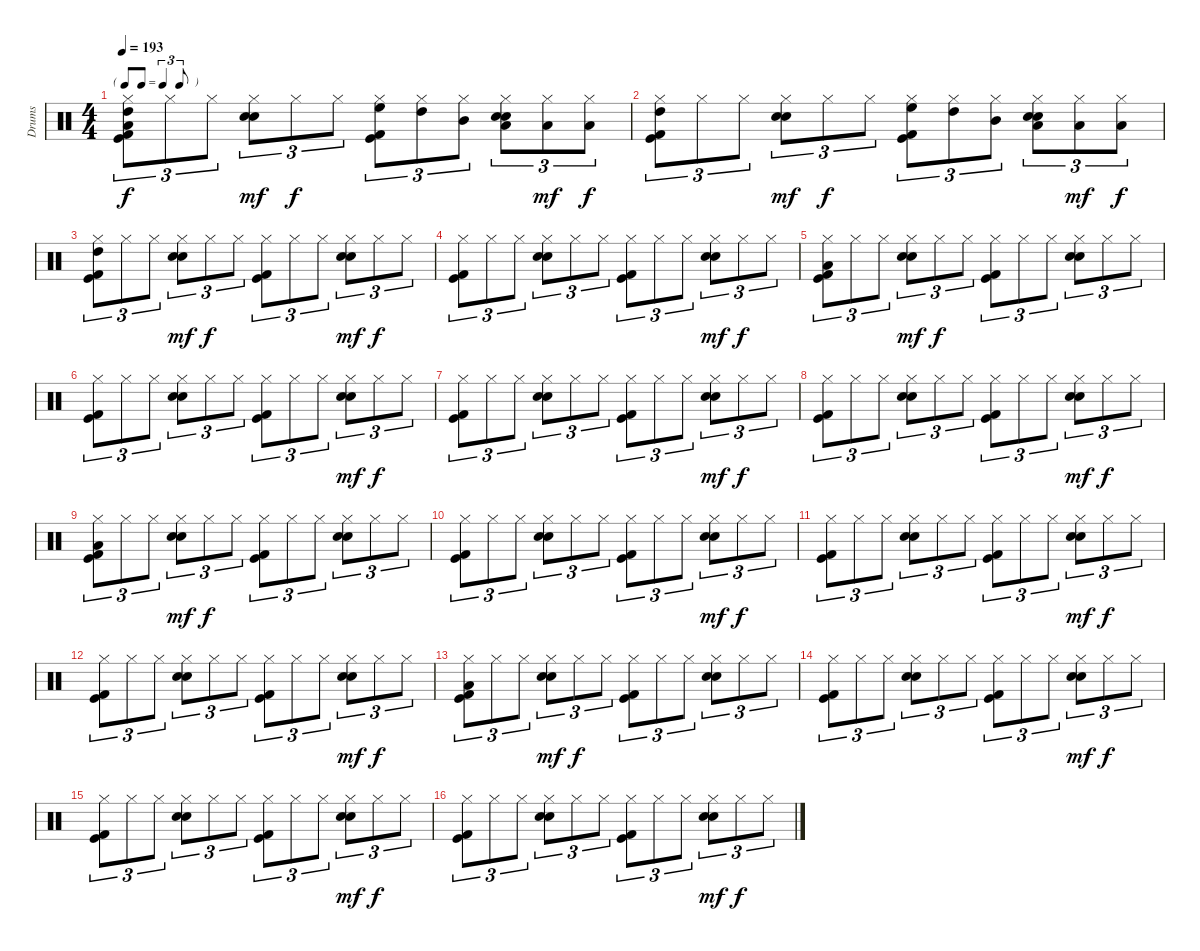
\track ("Drums" "Drums") {instrument percussion}
\staff {score}
\articulation defaults
\ts (4 4)
\tf triplet8th
\tempo 193
\clef neutral
\ks c
("High Tom (hit)" "Hi-Hat (closed)" "Low Floor Tom (hit)" "Kick (hit) 2" "Kick (hit)").8{tu (3 2) dy f} "Hi-Hat (closed)".8{tu (3 2)} "Hi-Hat (closed)".8{tu (3 2)} ("Hi-Hat (closed)" "Electric Snare (hit)" "Snare (hit) 2").8{tu (3 2) dy mf} "Hi-Hat (closed)".8{tu (3 2) dy f} "Hi-Hat (closed)".8{tu (3 2)} ("High Floor Tom (hit)" "Hi-Hat (closed)" "Kick (hit) 2" "Kick (hit)").8{tu (3 2)} ("High Tom (hit)" "Hi-Hat (closed)").8{tu (3 2)} ("Mid Tom (hit)" "Hi-Hat (closed)").8{tu (3 2)} ("Low Tom (hit)" "Hi-Hat (closed)" "Snare (hit) 2" "Electric Snare (hit)").8{tu (3 2)} ("Low Tom (hit)" "Hi-Hat (closed)").8{tu (3 2) dy mf} ("Low Tom (hit)" "Hi-Hat (closed)").8{tu (3 2) dy f} |
("High Tom (hit)" "Hi-Hat (closed)" "Kick (hit)" "Kick (hit) 2").8{tu (3 2)} "Hi-Hat (closed)".8{tu (3 2)} "Hi-Hat (closed)".8{tu (3 2)} ("Snare (hit) 2" "Electric Snare (hit)" "Hi-Hat (closed)").8{tu (3 2) dy mf} "Hi-Hat (closed)".8{tu (3 2) dy f} "Hi-Hat (closed)".8{tu (3 2)} ("High Floor Tom (hit)" "Hi-Hat (closed)" "Kick (hit)" "Kick (hit) 2").8{tu (3 2)} ("High Tom (hit)" "Hi-Hat (closed)").8{tu (3 2)} ("Mid Tom (hit)" "Hi-Hat (closed)").8{tu (3 2)} ("Low Tom (hit)" "Snare (hit) 2" "Electric Snare (hit)" "Hi-Hat (closed)").8{tu (3 2)} ("Low Tom (hit)" "Hi-Hat (closed)").8{tu (3 2) dy mf} ("Low Tom (hit)" "Hi-Hat (closed)").8{tu (3 2) dy f} |
("High Tom (hit)" "Hi-Hat (closed)" "Kick (hit) 2" "Kick (hit)").8{tu (3 2)} "Hi-Hat (closed)".8{tu (3 2)} "Hi-Hat (closed)".8{tu (3 2)} ("Snare (hit) 2" "Electric Snare (hit)" "Hi-Hat (closed)").8{tu (3 2) dy mf} "Hi-Hat (closed)".8{tu (3 2) dy f} "Hi-Hat (closed)".8{tu (3 2)} ("Hi-Hat (closed)" "Kick (hit)" "Kick (hit) 2").8{tu (3 2)} "Hi-Hat (closed)".8{tu (3 2)} "Hi-Hat (closed)".8{tu (3 2)} ("Hi-Hat (closed)" "Electric Snare (hit)" "Snare (hit) 2").8{tu (3 2) dy mf} "Hi-Hat (closed)".8{tu (3 2) dy f} "Hi-Hat (closed)".8{tu (3 2)} |
("Hi-Hat (closed)" "Kick (hit) 2" "Kick (hit)").8{tu (3 2)} "Hi-Hat (closed)".8{tu (3 2)} "Hi-Hat (closed)".8{tu (3 2)} ("Hi-Hat (closed)" "Snare (hit) 2" "Electric Snare (hit)").8{tu (3 2)} "Hi-Hat (closed)".8{tu (3 2)} "Hi-Hat (closed)".8{tu (3 2)} ("Hi-Hat (closed)" "Kick (hit)" "Kick (hit) 2").8{tu (3 2)} "Hi-Hat (closed)".8{tu (3 2)} "Hi-Hat (closed)".8{tu (3 2)} ("Hi-Hat (closed)" "Snare (hit) 2" "Electric Snare (hit)").8{tu (3 2) dy mf} "Hi-Hat (closed)".8{tu (3 2) dy f} "Hi-Hat (closed)".8{tu (3 2)} |
("Hi-Hat (closed)" "Kick (hit) 2" "Kick (hit)" "Low Floor Tom (hit)").8{tu (3 2)} "Hi-Hat (closed)".8{tu (3 2)} "Hi-Hat (closed)".8{tu (3 2)} ("Hi-Hat (closed)" "Electric Snare (hit)" "Snare (hit) 2").8{tu (3 2) dy mf} "Hi-Hat (closed)".8{tu (3 2) dy f} "Hi-Hat (closed)".8{tu (3 2)} ("Hi-Hat (closed)" "Kick (hit) 2" "Kick (hit)").8{tu (3 2)} "Hi-Hat (closed)".8{tu (3 2)} "Hi-Hat (closed)".8{tu (3 2)} ("Hi-Hat (closed)" "Snare (hit) 2" "Electric Snare (hit)").8{tu (3 2)} "Hi-Hat (closed)".8{tu (3 2)} "Hi-Hat (closed)".8{tu (3 2)} |
("Hi-Hat (closed)" "Kick (hit) 2" "Kick (hit)").8{tu (3 2)} "Hi-Hat (closed)".8{tu (3 2)} "Hi-Hat (closed)".8{tu (3 2)} ("Hi-Hat (closed)" "Snare (hit) 2" "Electric Snare (hit)").8{tu (3 2)} "Hi-Hat (closed)".8{tu (3 2)} "Hi-Hat (closed)".8{tu (3 2)} ("Hi-Hat (closed)" "Kick (hit)" "Kick (hit) 2").8{tu (3 2)} "Hi-Hat (closed)".8{tu (3 2)} "Hi-Hat (closed)".8{tu (3 2)} ("Hi-Hat (closed)" "Snare (hit) 2" "Electric Snare (hit)").8{tu (3 2) dy mf} "Hi-Hat (closed)".8{tu (3 2) dy f} "Hi-Hat (closed)".8{tu (3 2)} |
("Hi-Hat (closed)" "Kick (hit) 2" "Kick (hit)").8{tu (3 2)} "Hi-Hat (closed)".8{tu (3 2)} "Hi-Hat (closed)".8{tu (3 2)} ("Hi-Hat (closed)" "Snare (hit) 2" "Electric Snare (hit)").8{tu (3 2)} "Hi-Hat (closed)".8{tu (3 2)} "Hi-Hat (closed)".8{tu (3 2)} ("Hi-Hat (closed)" "Kick (hit)" "Kick (hit) 2").8{tu (3 2)} "Hi-Hat (closed)".8{tu (3 2)} "Hi-Hat (closed)".8{tu (3 2)} ("Hi-Hat (closed)" "Snare (hit) 2" "Electric Snare (hit)").8{tu (3 2) dy mf} "Hi-Hat (closed)".8{tu (3 2) dy f} "Hi-Hat (closed)".8{tu (3 2)} |
("Hi-Hat (closed)" "Kick (hit) 2" "Kick (hit)").8{tu (3 2)} "Hi-Hat (closed)".8{tu (3 2)} "Hi-Hat (closed)".8{tu (3 2)} ("Hi-Hat (closed)" "Snare (hit) 2" "Electric Snare (hit)").8{tu (3 2)} "Hi-Hat (closed)".8{tu (3 2)} "Hi-Hat (closed)".8{tu (3 2)} ("Hi-Hat (closed)" "Kick (hit)" "Kick (hit) 2").8{tu (3 2)} "Hi-Hat (closed)".8{tu (3 2)} "Hi-Hat (closed)".8{tu (3 2)} ("Hi-Hat (closed)" "Snare (hit) 2" "Electric Snare (hit)").8{tu (3 2) dy mf} "Hi-Hat (closed)".8{tu (3 2) dy f} "Hi-Hat (closed)".8{tu (3 2)} |
("Hi-Hat (closed)" "Kick (hit) 2" "Kick (hit)" "Low Floor Tom (hit)").8{tu (3 2)} "Hi-Hat (closed)".8{tu (3 2)} "Hi-Hat (closed)".8{tu (3 2)} ("Hi-Hat (closed)" "Electric Snare (hit)" "Snare (hit) 2").8{tu (3 2) dy mf} "Hi-Hat (closed)".8{tu (3 2) dy f} "Hi-Hat (closed)".8{tu (3 2)} ("Hi-Hat (closed)" "Kick (hit) 2" "Kick (hit)").8{tu (3 2)} "Hi-Hat (closed)".8{tu (3 2)} "Hi-Hat (closed)".8{tu (3 2)} ("Hi-Hat (closed)" "Snare (hit) 2" "Electric Snare (hit)").8{tu (3 2)} "Hi-Hat (closed)".8{tu (3 2)} "Hi-Hat (closed)".8{tu (3 2)} |
("Hi-Hat (closed)" "Kick (hit) 2" "Kick (hit)").8{tu (3 2)} "Hi-Hat (closed)".8{tu (3 2)} "Hi-Hat (closed)".8{tu (3 2)} ("Hi-Hat (closed)" "Snare (hit) 2" "Electric Snare (hit)").8{tu (3 2)} "Hi-Hat (closed)".8{tu (3 2)} "Hi-Hat (closed)".8{tu (3 2)} ("Hi-Hat (closed)" "Kick (hit)" "Kick (hit) 2").8{tu (3 2)} "Hi-Hat (closed)".8{tu (3 2)} "Hi-Hat (closed)".8{tu (3 2)} ("Hi-Hat (closed)" "Snare (hit) 2" "Electric Snare (hit)").8{tu (3 2) dy mf} "Hi-Hat (closed)".8{tu (3 2) dy f} "Hi-Hat (closed)".8{tu (3 2)} |
("Hi-Hat (closed)" "Kick (hit) 2" "Kick (hit)").8{tu (3 2)} "Hi-Hat (closed)".8{tu (3 2)} "Hi-Hat (closed)".8{tu (3 2)} ("Hi-Hat (closed)" "Snare (hit) 2" "Electric Snare (hit)").8{tu (3 2)} "Hi-Hat (closed)".8{tu (3 2)} "Hi-Hat (closed)".8{tu (3 2)} ("Hi-Hat (closed)" "Kick (hit)" "Kick (hit) 2").8{tu (3 2)} "Hi-Hat (closed)".8{tu (3 2)} "Hi-Hat (closed)".8{tu (3 2)} ("Hi-Hat (closed)" "Snare (hit) 2" "Electric Snare (hit)").8{tu (3 2) dy mf} "Hi-Hat (closed)".8{tu (3 2) dy f} "Hi-Hat (closed)".8{tu (3 2)} |
("Hi-Hat (closed)" "Kick (hit) 2" "Kick (hit)").8{tu (3 2)} "Hi-Hat (closed)".8{tu (3 2)} "Hi-Hat (closed)".8{tu (3 2)} ("Hi-Hat (closed)" "Snare (hit) 2" "Electric Snare (hit)").8{tu (3 2)} "Hi-Hat (closed)".8{tu (3 2)} "Hi-Hat (closed)".8{tu (3 2)} ("Hi-Hat (closed)" "Kick (hit)" "Kick (hit) 2").8{tu (3 2)} "Hi-Hat (closed)".8{tu (3 2)} "Hi-Hat (closed)".8{tu (3 2)} ("Hi-Hat (closed)" "Snare (hit) 2" "Electric Snare (hit)").8{tu (3 2) dy mf} "Hi-Hat (closed)".8{tu (3 2) dy f} "Hi-Hat (closed)".8{tu (3 2)} |
("Hi-Hat (closed)" "Kick (hit) 2" "Kick (hit)" "Low Floor Tom (hit)").8{tu (3 2)} "Hi-Hat (closed)".8{tu (3 2)} "Hi-Hat (closed)".8{tu (3 2)} ("Hi-Hat (closed)" "Electric Snare (hit)" "Snare (hit) 2").8{tu (3 2) dy mf} "Hi-Hat (closed)".8{tu (3 2) dy f} "Hi-Hat (closed)".8{tu (3 2)} ("Hi-Hat (closed)" "Kick (hit) 2" "Kick (hit)").8{tu (3 2)} "Hi-Hat (closed)".8{tu (3 2)} "Hi-Hat (closed)".8{tu (3 2)} ("Hi-Hat (closed)" "Snare (hit) 2" "Electric Snare (hit)").8{tu (3 2)} "Hi-Hat (closed)".8{tu (3 2)} "Hi-Hat (closed)".8{tu (3 2)} |
("Hi-Hat (closed)" "Kick (hit) 2" "Kick (hit)").8{tu (3 2)} "Hi-Hat (closed)".8{tu (3 2)} "Hi-Hat (closed)".8{tu (3 2)} ("Hi-Hat (closed)" "Snare (hit) 2" "Electric Snare (hit)").8{tu (3 2)} "Hi-Hat (closed)".8{tu (3 2)} "Hi-Hat (closed)".8{tu (3 2)} ("Hi-Hat (closed)" "Kick (hit)" "Kick (hit) 2").8{tu (3 2)} "Hi-Hat (closed)".8{tu (3 2)} "Hi-Hat (closed)".8{tu (3 2)} ("Hi-Hat (closed)" "Snare (hit) 2" "Electric Snare (hit)").8{tu (3 2) dy mf} "Hi-Hat (closed)".8{tu (3 2) dy f} "Hi-Hat (closed)".8{tu (3 2)} |
("Hi-Hat (closed)" "Kick (hit) 2" "Kick (hit)").8{tu (3 2)} "Hi-Hat (closed)".8{tu (3 2)} "Hi-Hat (closed)".8{tu (3 2)} ("Hi-Hat (closed)" "Snare (hit) 2" "Electric Snare (hit)").8{tu (3 2)} "Hi-Hat (closed)".8{tu (3 2)} "Hi-Hat (closed)".8{tu (3 2)} ("Hi-Hat (closed)" "Kick (hit)" "Kick (hit) 2").8{tu (3 2)} "Hi-Hat (closed)".8{tu (3 2)} "Hi-Hat (closed)".8{tu (3 2)} ("Hi-Hat (closed)" "Snare (hit) 2" "Electric Snare (hit)").8{tu (3 2) dy mf} "Hi-Hat (closed)".8{tu (3 2) dy f} "Hi-Hat (closed)".8{tu (3 2)} |
("Hi-Hat (closed)" "Kick (hit) 2" "Kick (hit)").8{tu (3 2)} "Hi-Hat (closed)".8{tu (3 2)} "Hi-Hat (closed)".8{tu (3 2)} ("Hi-Hat (closed)" "Snare (hit) 2" "Electric Snare (hit)").8{tu (3 2)} "Hi-Hat (closed)".8{tu (3 2)} "Hi-Hat (closed)".8{tu (3 2)} ("Hi-Hat (closed)" "Kick (hit)" "Kick (hit) 2").8{tu (3 2)} "Hi-Hat (closed)".8{tu (3 2)} "Hi-Hat (closed)".8{tu (3 2)} ("Hi-Hat (closed)" "Snare (hit) 2" "Electric Snare (hit)").8{tu (3 2) dy mf} "Hi-Hat (closed)".8{tu (3 2) dy f} "Hi-Hat (closed)".8{tu (3 2)}
